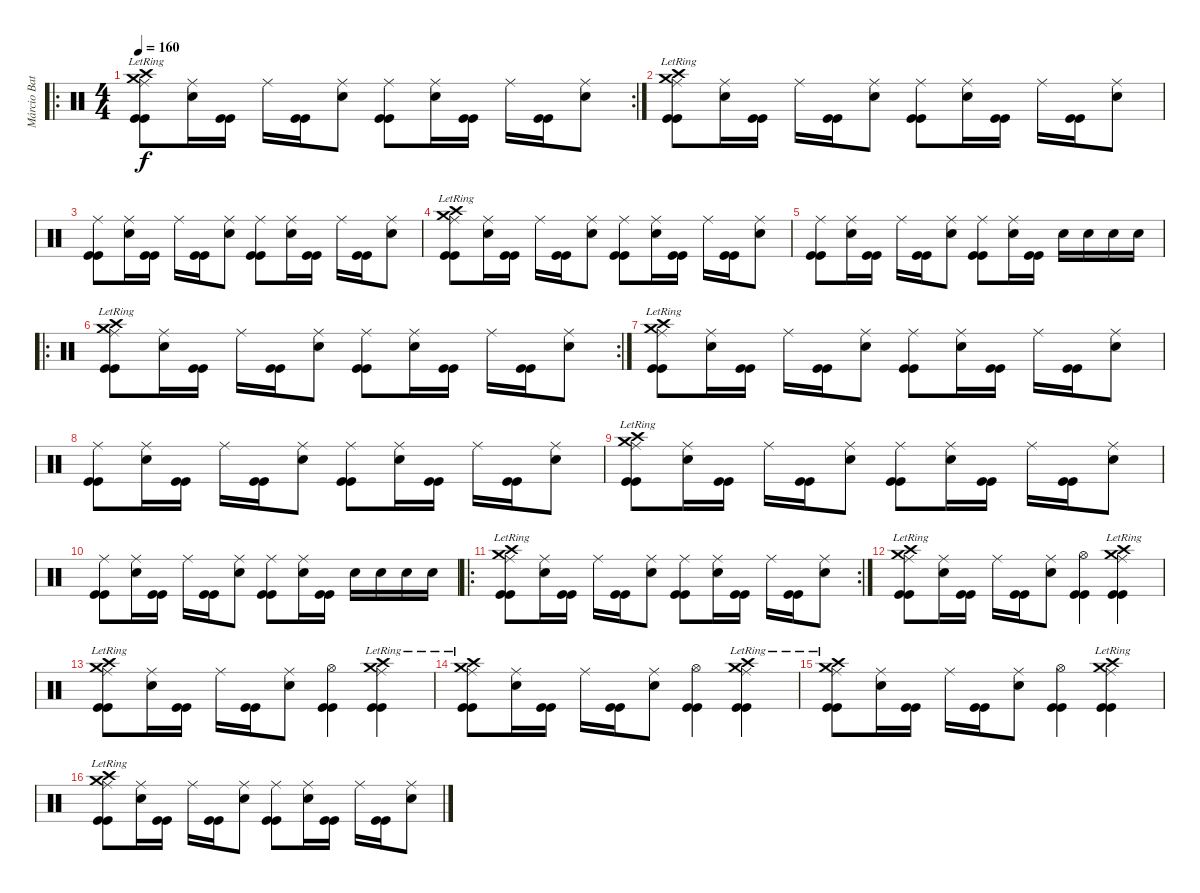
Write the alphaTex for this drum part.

\track ("Márcio Batista" "Márcio Bat") {instrument percussion}
\staff {score}
\articulation defaults
\ro
\rc 2
\ts (4 4)
\tempo 160
\clef neutral
\ks c
("Crash high (hit)"{lr} "Crash medium (hit)"{lr} "Ride (middle)" "Kick (hit)" "Kick (hit)").8{dy f} ("Snare (hit) 2" "Ride (middle)").16 ("Kick (hit)" "Kick (hit)").16 "Ride (middle)".16 ("Kick (hit)" "Kick (hit)").16 ("Snare (hit) 2" "Ride (middle)").8 ("Ride (middle)" "Kick (hit)" "Kick (hit)").8 ("Snare (hit) 2" "Ride (middle)").16 ("Kick (hit)" "Kick (hit)").16 "Ride (middle)".16 ("Kick (hit)" "Kick (hit)").16 ("Snare (hit) 2" "Ride (middle)").8 |
("Crash high (hit)"{lr} "Crash medium (hit)"{lr} "Ride (middle)" "Kick (hit)" "Kick (hit)").8 ("Snare (hit) 2" "Ride (middle)").16 ("Kick (hit)" "Kick (hit)").16 "Ride (middle)".16 ("Kick (hit)" "Kick (hit)").16 ("Snare (hit) 2" "Ride (middle)").8 ("Ride (middle)" "Kick (hit)" "Kick (hit)").8 ("Snare (hit) 2" "Ride (middle)").16 ("Kick (hit)" "Kick (hit)").16 "Ride (middle)".16 ("Kick (hit)" "Kick (hit)").16 ("Snare (hit) 2" "Ride (middle)").8 |
("Ride (middle)" "Kick (hit)" "Kick (hit)").8 ("Snare (hit) 2" "Ride (middle)").16 ("Kick (hit)" "Kick (hit)").16 "Ride (middle)".16 ("Kick (hit)" "Kick (hit)").16 ("Snare (hit) 2" "Ride (middle)").8 ("Ride (middle)" "Kick (hit)" "Kick (hit)").8 ("Snare (hit) 2" "Ride (middle)").16 ("Kick (hit)" "Kick (hit)").16 "Ride (middle)".16 ("Kick (hit)" "Kick (hit)").16 ("Snare (hit) 2" "Ride (middle)").8 |
("Crash high (hit)"{lr} "Crash medium (hit)"{lr} "Ride (middle)" "Kick (hit)" "Kick (hit)").8 ("Snare (hit) 2" "Ride (middle)").16 ("Kick (hit)" "Kick (hit)").16 "Ride (middle)".16 ("Kick (hit)" "Kick (hit)").16 ("Snare (hit) 2" "Ride (middle)").8 ("Ride (middle)" "Kick (hit)" "Kick (hit)").8 ("Snare (hit) 2" "Ride (middle)").16 ("Kick (hit)" "Kick (hit)").16 "Ride (middle)".16 ("Kick (hit)" "Kick (hit)").16 ("Snare (hit) 2" "Ride (middle)").8 |
("Ride (middle)" "Kick (hit)" "Kick (hit)").8 ("Snare (hit) 2" "Ride (middle)").16 ("Kick (hit)" "Kick (hit)").16 "Ride (middle)".16 ("Kick (hit)" "Kick (hit)").16 ("Snare (hit) 2" "Ride (middle)").8 ("Ride (middle)" "Kick (hit)" "Kick (hit)").8 ("Snare (hit) 2" "Ride (middle)").16 ("Kick (hit)" "Kick (hit)").16 "Snare (hit) 2".16 "Snare (hit) 2".16 "Snare (hit) 2".16 "Snare (hit) 2".16 |
\ro
\rc 2
("Crash high (hit)"{lr} "Crash medium (hit)"{lr} "Ride (middle)" "Kick (hit)" "Kick (hit)").8 ("Snare (hit) 2" "Ride (middle)").16 ("Kick (hit)" "Kick (hit)").16 "Ride (middle)".16 ("Kick (hit)" "Kick (hit)").16 ("Snare (hit) 2" "Ride (middle)").8 ("Ride (middle)" "Kick (hit)" "Kick (hit)").8 ("Snare (hit) 2" "Ride (middle)").16 ("Kick (hit)" "Kick (hit)").16 "Ride (middle)".16 ("Kick (hit)" "Kick (hit)").16 ("Snare (hit) 2" "Ride (middle)").8 |
("Crash high (hit)"{lr} "Crash medium (hit)"{lr} "Ride (middle)" "Kick (hit)" "Kick (hit)").8 ("Snare (hit) 2" "Ride (middle)").16 ("Kick (hit)" "Kick (hit)").16 "Ride (middle)".16 ("Kick (hit)" "Kick (hit)").16 ("Snare (hit) 2" "Ride (middle)").8 ("Ride (middle)" "Kick (hit)" "Kick (hit)").8 ("Snare (hit) 2" "Ride (middle)").16 ("Kick (hit)" "Kick (hit)").16 "Ride (middle)".16 ("Kick (hit)" "Kick (hit)").16 ("Snare (hit) 2" "Ride (middle)").8 |
("Ride (middle)" "Kick (hit)" "Kick (hit)").8 ("Snare (hit) 2" "Ride (middle)").16 ("Kick (hit)" "Kick (hit)").16 "Ride (middle)".16 ("Kick (hit)" "Kick (hit)").16 ("Snare (hit) 2" "Ride (middle)").8 ("Ride (middle)" "Kick (hit)" "Kick (hit)").8 ("Snare (hit) 2" "Ride (middle)").16 ("Kick (hit)" "Kick (hit)").16 "Ride (middle)".16 ("Kick (hit)" "Kick (hit)").16 ("Snare (hit) 2" "Ride (middle)").8 |
("Crash high (hit)"{lr} "Crash medium (hit)"{lr} "Ride (middle)" "Kick (hit)" "Kick (hit)").8 ("Snare (hit) 2" "Ride (middle)").16 ("Kick (hit)" "Kick (hit)").16 "Ride (middle)".16 ("Kick (hit)" "Kick (hit)").16 ("Snare (hit) 2" "Ride (middle)").8 ("Ride (middle)" "Kick (hit)" "Kick (hit)").8 ("Snare (hit) 2" "Ride (middle)").16 ("Kick (hit)" "Kick (hit)").16 "Ride (middle)".16 ("Kick (hit)" "Kick (hit)").16 ("Snare (hit) 2" "Ride (middle)").8 |
("Ride (middle)" "Kick (hit)" "Kick (hit)").8 ("Snare (hit) 2" "Ride (middle)").16 ("Kick (hit)" "Kick (hit)").16 "Ride (middle)".16 ("Kick (hit)" "Kick (hit)").16 ("Snare (hit) 2" "Ride (middle)").8 ("Ride (middle)" "Kick (hit)" "Kick (hit)").8 ("Snare (hit) 2" "Ride (middle)").16 ("Kick (hit)" "Kick (hit)").16 "Snare (hit) 2".16 "Snare (hit) 2".16 "Snare (hit) 2".16 "Snare (hit) 2".16 |
\ro
\rc 2
("Crash high (hit)"{lr} "Crash medium (hit)"{lr} "Ride (middle)" "Kick (hit)" "Kick (hit)").8 ("Snare (hit) 2" "Ride (middle)").16 ("Kick (hit)" "Kick (hit)").16 "Ride (middle)".16 ("Kick (hit)" "Kick (hit)").16 ("Snare (hit) 2" "Ride (middle)").8 ("Ride (middle)" "Kick (hit)" "Kick (hit)").8 ("Snare (hit) 2" "Ride (middle)").16 ("Kick (hit)" "Kick (hit)").16 "Ride (middle)".16 ("Kick (hit)" "Kick (hit)").16 ("Snare (hit) 2" "Ride (middle)").8 |
("Crash high (hit)"{lr} "Crash medium (hit)"{lr} "Ride (middle)" "Kick (hit)" "Kick (hit)").8 ("Snare (hit) 2" "Ride (middle)").16 ("Kick (hit)" "Kick (hit)").16 "Ride (middle)".16 ("Kick (hit)" "Kick (hit)").16 ("Snare (hit) 2" "Ride (middle)").8 ("Hi-Hat (open)" "Kick (hit)" "Kick (hit)").4 ("Crash high (hit)"{lr} "Crash medium (hit)"{lr} "Ride (middle)" "Kick (hit)" "Kick (hit)").4 |
("Crash high (hit)"{lr} "Crash medium (hit)"{lr} "Ride (middle)" "Kick (hit)" "Kick (hit)").8 ("Snare (hit) 2" "Ride (middle)").16 ("Kick (hit)" "Kick (hit)").16 "Ride (middle)".16 ("Kick (hit)" "Kick (hit)").16 ("Snare (hit) 2" "Ride (middle)").8 ("Hi-Hat (open)" "Kick (hit)" "Kick (hit)").4 ("Crash high (hit)"{lr} "Crash medium (hit)"{lr} "Ride (middle)" "Kick (hit)" "Kick (hit)").4 |
("Crash high (hit)"{lr} "Crash medium (hit)"{lr} "Ride (middle)" "Kick (hit)" "Kick (hit)").8 ("Snare (hit) 2" "Ride (middle)").16 ("Kick (hit)" "Kick (hit)").16 "Ride (middle)".16 ("Kick (hit)" "Kick (hit)").16 ("Snare (hit) 2" "Ride (middle)").8 ("Hi-Hat (open)" "Kick (hit)" "Kick (hit)").4 ("Crash high (hit)"{lr} "Crash medium (hit)"{lr} "Ride (middle)" "Kick (hit)" "Kick (hit)").4 |
("Crash high (hit)"{lr} "Crash medium (hit)"{lr} "Ride (middle)" "Kick (hit)" "Kick (hit)").8 ("Snare (hit) 2" "Ride (middle)").16 ("Kick (hit)" "Kick (hit)").16 "Ride (middle)".16 ("Kick (hit)" "Kick (hit)").16 ("Snare (hit) 2" "Ride (middle)").8 ("Hi-Hat (open)" "Kick (hit)" "Kick (hit)").4 ("Crash high (hit)"{lr} "Crash medium (hit)"{lr} "Ride (middle)" "Kick (hit)" "Kick (hit)").4 |
("Crash high (hit)"{lr} "Crash medium (hit)"{lr} "Ride (middle)" "Kick (hit)" "Kick (hit)").8 ("Snare (hit) 2" "Ride (middle)").16 ("Kick (hit)" "Kick (hit)").16 "Ride (middle)".16 ("Kick (hit)" "Kick (hit)").16 ("Snare (hit) 2" "Ride (middle)").8 ("Ride (middle)" "Kick (hit)" "Kick (hit)").8 ("Snare (hit) 2" "Ride (middle)").16 ("Kick (hit)" "Kick (hit)").16 "Ride (middle)".16 ("Kick (hit)" "Kick (hit)").16 ("Snare (hit) 2" "Ride (middle)").8
